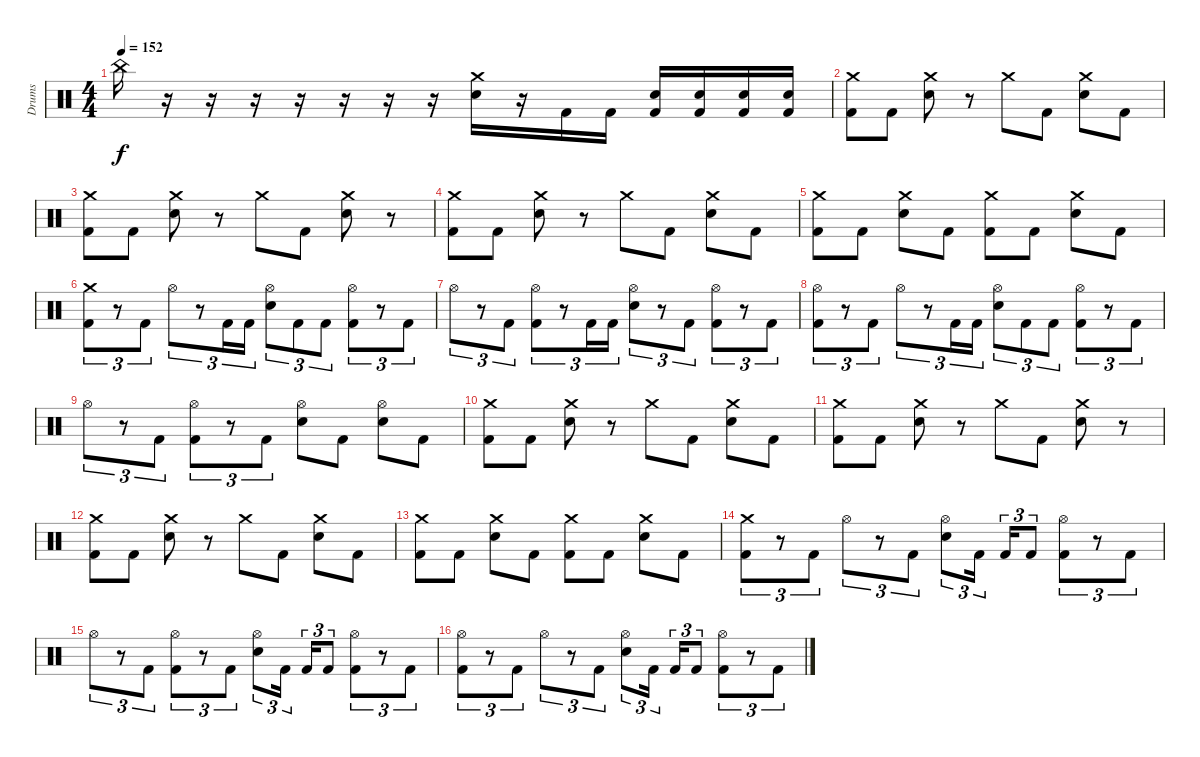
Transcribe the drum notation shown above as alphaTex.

\track ("Drums" "Drums") {instrument percussion}
\staff {score}
\articulation defaults
\ts (4 4)
\tempo 152
\clef neutral
\ks c "China (hit)".16{dy f}
r.16 r.16 r.16 r.16 r.16 r.16 r.16 ("Crash medium (hit)" "Electric Snare (hit)").16 r.16 "Kick (hit) 2".16 "Kick (hit) 2".16 ("Electric Snare (hit)" "Kick (hit) 2").16 ("Electric Snare (hit)" "Kick (hit) 2").16 ("Electric Snare (hit)" "Kick (hit) 2").16 ("Electric Snare (hit)" "Kick (hit) 2").16 |
("Crash medium (hit)" "Kick (hit) 2").8 "Kick (hit) 2".8 ("Crash medium (hit)" "Electric Snare (hit)").8 r.8 "Crash medium (hit)".8 "Kick (hit) 2".8 ("Crash medium (hit)" "Electric Snare (hit)").8 "Kick (hit) 2".8 |
("Crash medium (hit)" "Kick (hit) 2").8 "Kick (hit) 2".8 ("Crash medium (hit)" "Electric Snare (hit)").8 r.8 "Crash medium (hit)".8 "Kick (hit) 2".8 ("Crash medium (hit)" "Electric Snare (hit)").8 r.8 |
("Crash medium (hit)" "Kick (hit) 2").8 "Kick (hit) 2".8 ("Crash medium (hit)" "Electric Snare (hit)").8 r.8 "Crash medium (hit)".8 "Kick (hit) 2".8 ("Crash medium (hit)" "Electric Snare (hit)").8 "Kick (hit) 2".8 |
("Crash medium (hit)" "Kick (hit) 2").8 "Kick (hit) 2".8 ("Crash medium (hit)" "Electric Snare (hit)").8 "Kick (hit) 2".8 ("Crash medium (hit)" "Kick (hit) 2").8 "Kick (hit) 2".8 ("Crash medium (hit)" "Electric Snare (hit)").8 "Kick (hit) 2".8 |
("Crash medium (hit)" "Kick (hit) 2").8{tu (3 2)} r.8{tu (3 2)} "Kick (hit) 2".8{tu (3 2)} "Hi-Hat (open)".8{tu (3 2)} r.8{tu (3 2)} "Kick (hit) 2".16{tu (3 2)} "Kick (hit) 2".16{tu (3 2)} ("Hi-Hat (open)" "Electric Snare (hit)").8{tu (3 2)} "Kick (hit) 2".8{tu (3 2)} "Kick (hit) 2".8{tu (3 2)} ("Hi-Hat (open)" "Kick (hit) 2").8{tu (3 2)} r.8{tu (3 2)} "Kick (hit) 2".8{tu (3 2)} |
"Hi-Hat (open)".8{tu (3 2)} r.8{tu (3 2)} "Kick (hit) 2".8{tu (3 2)} ("Hi-Hat (open)" "Kick (hit) 2").8{tu (3 2)} r.8{tu (3 2)} "Kick (hit) 2".16{tu (3 2)} "Kick (hit) 2".16{tu (3 2)} ("Hi-Hat (open)" "Electric Snare (hit)").8{tu (3 2)} r.8{tu (3 2)} "Kick (hit) 2".8{tu (3 2)} ("Hi-Hat (open)" "Kick (hit) 2").8{tu (3 2)} r.8{tu (3 2)} "Kick (hit) 2".8{tu (3 2)} |
("Hi-Hat (open)" "Kick (hit) 2").8{tu (3 2)} r.8{tu (3 2)} "Kick (hit) 2".8{tu (3 2)} "Hi-Hat (open)".8{tu (3 2)} r.8{tu (3 2)} "Kick (hit) 2".16{tu (3 2)} "Kick (hit) 2".16{tu (3 2)} ("Hi-Hat (open)" "Electric Snare (hit)").8{tu (3 2)} "Kick (hit) 2".8{tu (3 2)} "Kick (hit) 2".8{tu (3 2)} ("Hi-Hat (open)" "Kick (hit) 2").8{tu (3 2)} r.8{tu (3 2)} "Kick (hit) 2".8{tu (3 2)} |
"Hi-Hat (open)".8{tu (3 2)} r.8{tu (3 2)} "Kick (hit) 2".8{tu (3 2)} ("Hi-Hat (open)" "Kick (hit) 2").8{tu (3 2)} r.8{tu (3 2)} "Kick (hit) 2".8{tu (3 2)} ("Hi-Hat (open)" "Electric Snare (hit)").8 "Kick (hit) 2".8 ("Hi-Hat (open)" "Electric Snare (hit)").8 "Kick (hit) 2".8 |
("Crash medium (hit)" "Kick (hit) 2").8 "Kick (hit) 2".8 ("Crash medium (hit)" "Electric Snare (hit)").8 r.8 "Crash medium (hit)".8 "Kick (hit) 2".8 ("Crash medium (hit)" "Electric Snare (hit)").8 "Kick (hit) 2".8 |
("Crash medium (hit)" "Kick (hit) 2").8 "Kick (hit) 2".8 ("Crash medium (hit)" "Electric Snare (hit)").8 r.8 "Crash medium (hit)".8 "Kick (hit) 2".8 ("Crash medium (hit)" "Electric Snare (hit)").8 r.8 |
("Crash medium (hit)" "Kick (hit) 2").8 "Kick (hit) 2".8 ("Crash medium (hit)" "Electric Snare (hit)").8 r.8 "Crash medium (hit)".8 "Kick (hit) 2".8 ("Crash medium (hit)" "Electric Snare (hit)").8 "Kick (hit) 2".8 |
("Crash medium (hit)" "Kick (hit) 2").8 "Kick (hit) 2".8 ("Crash medium (hit)" "Electric Snare (hit)").8 "Kick (hit) 2".8 ("Crash medium (hit)" "Kick (hit) 2").8 "Kick (hit) 2".8 ("Crash medium (hit)" "Electric Snare (hit)").8 "Kick (hit) 2".8 |
("Crash medium (hit)" "Kick (hit) 2").8{tu (3 2)} r.8{tu (3 2)} "Kick (hit) 2".8{tu (3 2)} "Hi-Hat (open)".8{tu (3 2)} r.8{tu (3 2)} "Kick (hit) 2".8{tu (3 2)} ("Hi-Hat (open)" "Electric Snare (hit)").8{tu (3 2)} "Kick (hit) 2".16{tu (3 2)} "Kick (hit) 2".16{tu (3 2)} "Kick (hit) 2".8{tu (3 2)} ("Hi-Hat (open)" "Kick (hit) 2").8{tu (3 2)} r.8{tu (3 2)} "Kick (hit) 2".8{tu (3 2)} |
"Hi-Hat (open)".8{tu (3 2)} r.8{tu (3 2)} "Kick (hit) 2".8{tu (3 2)} ("Hi-Hat (open)" "Kick (hit) 2").8{tu (3 2)} r.8{tu (3 2)} "Kick (hit) 2".8{tu (3 2)} ("Hi-Hat (open)" "Electric Snare (hit)").8{tu (3 2)} "Kick (hit) 2".16{tu (3 2)} "Kick (hit) 2".16{tu (3 2)} "Kick (hit) 2".8{tu (3 2)} ("Hi-Hat (open)" "Kick (hit) 2").8{tu (3 2)} r.8{tu (3 2)} "Kick (hit) 2".8{tu (3 2)} |
("Hi-Hat (open)" "Kick (hit) 2").8{tu (3 2)} r.8{tu (3 2)} "Kick (hit) 2".8{tu (3 2)} "Hi-Hat (open)".8{tu (3 2)} r.8{tu (3 2)} "Kick (hit) 2".8{tu (3 2)} ("Hi-Hat (open)" "Electric Snare (hit)").8{tu (3 2)} "Kick (hit) 2".16{tu (3 2)} "Kick (hit) 2".16{tu (3 2)} "Kick (hit) 2".8{tu (3 2)} ("Hi-Hat (open)" "Kick (hit) 2").8{tu (3 2)} r.8{tu (3 2)} "Kick (hit) 2".8{tu (3 2)}
